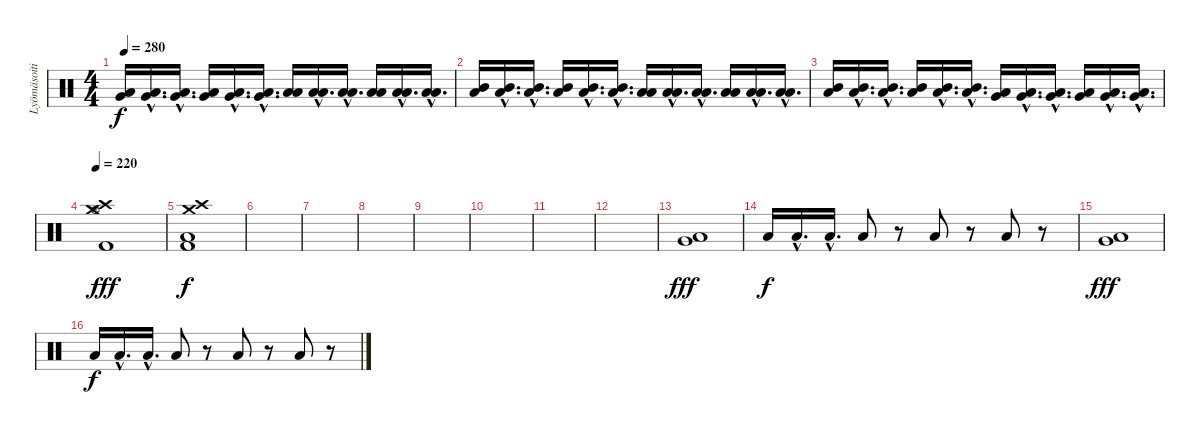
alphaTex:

\track ("Lyömäsoitin" "Lyömäsoiti") {instrument percussion}
\staff {score}
\articulation defaults
\ts (4 4)
\tempo 280
\clef neutral
\ks c
("Very Low Tom (hit)" "Low Floor Tom (hit)").16{dy f} ("Very Low Tom (hit)"{hac} "Low Floor Tom (hit)"{hac}).16{d} ("Very Low Tom (hit)"{hac} "Low Floor Tom (hit)"{hac}).16{d} ("Very Low Tom (hit)" "Low Floor Tom (hit)").16 ("Very Low Tom (hit)"{hac} "Low Floor Tom (hit)"{hac}).16{d} ("Very Low Tom (hit)"{hac} "Low Floor Tom (hit)"{hac}).16{d} ("Low Tom (hit)" "Low Floor Tom (hit)").16 ("Low Tom (hit)"{hac} "Low Floor Tom (hit)"{hac}).16{d} ("Low Tom (hit)"{hac} "Low Floor Tom (hit)"{hac}).16{d} ("Low Tom (hit)" "Low Floor Tom (hit)").16 ("Low Tom (hit)"{hac} "Low Floor Tom (hit)"{hac}).16{d} ("Low Tom (hit)"{hac} "Low Floor Tom (hit)"{hac}).16{d} |
("Mid Tom (hit)" "Low Floor Tom (hit)").16 ("Mid Tom (hit)"{hac} "Low Floor Tom (hit)"{hac}).16{d} ("Mid Tom (hit)"{hac} "Low Floor Tom (hit)"{hac}).16{d} ("Mid Tom (hit)" "Low Floor Tom (hit)").16 ("Mid Tom (hit)"{hac} "Low Floor Tom (hit)"{hac}).16{d} ("Mid Tom (hit)"{hac} "Low Floor Tom (hit)"{hac}).16{d} ("Low Tom (hit)" "Low Floor Tom (hit)").16 ("Low Tom (hit)"{hac} "Low Floor Tom (hit)"{hac}).16{d} ("Low Tom (hit)"{hac} "Low Floor Tom (hit)"{hac}).16{d} ("Low Tom (hit)" "Low Floor Tom (hit)").16 ("Low Tom (hit)"{hac} "Low Floor Tom (hit)"{hac}).16{d} ("Low Tom (hit)"{hac} "Low Floor Tom (hit)"{hac}).16{d} |
("Mid Tom (hit)" "Low Floor Tom (hit)").16 ("Mid Tom (hit)"{hac} "Low Floor Tom (hit)"{hac}).16{d} ("Mid Tom (hit)"{hac} "Low Floor Tom (hit)"{hac}).16{d} ("Mid Tom (hit)" "Low Floor Tom (hit)").16 ("Mid Tom (hit)"{hac} "Low Floor Tom (hit)"{hac}).16{d} ("Mid Tom (hit)"{hac} "Low Floor Tom (hit)"{hac}).16{d} ("Very Low Tom (hit)" "Low Floor Tom (hit)").16 ("Very Low Tom (hit)"{hac} "Low Floor Tom (hit)"{hac}).16{d} ("Very Low Tom (hit)"{hac} "Low Floor Tom (hit)"{hac}).16{d} ("Very Low Tom (hit)" "Low Floor Tom (hit)").16 ("Very Low Tom (hit)"{hac} "Low Floor Tom (hit)"{hac}).16{d} ("Very Low Tom (hit)"{hac} "Low Floor Tom (hit)"{hac}).16{d} |
\tempo 220
("Crash medium (hit)" "Crash high (hit)" "Hi-Hat (open)" "Kick (hit) 2").1{dy fff} |
("Crash medium (hit)" "Crash high (hit)" "Low Floor Tom (hit)" "Kick (hit) 2").1{dy f} |
|
|
|
|
|
|
|
("Very Low Tom (hit)" "Low Floor Tom (hit)").1{dy fff} |
"Low Floor Tom (hit)".16{dy f} "Low Floor Tom (hit)"{hac}.16{d} "Low Floor Tom (hit)"{hac}.16{d} "Low Floor Tom (hit)".8 r.8 "Low Floor Tom (hit)".8 r.8 "Low Floor Tom (hit)".8 r.8 |
("Very Low Tom (hit)" "Low Floor Tom (hit)").1{dy fff} |
"Low Floor Tom (hit)".16{dy f} "Low Floor Tom (hit)"{hac}.16{d} "Low Floor Tom (hit)"{hac}.16{d} "Low Floor Tom (hit)".8 r.8 "Low Floor Tom (hit)".8 r.8 "Low Floor Tom (hit)".8 r.8
